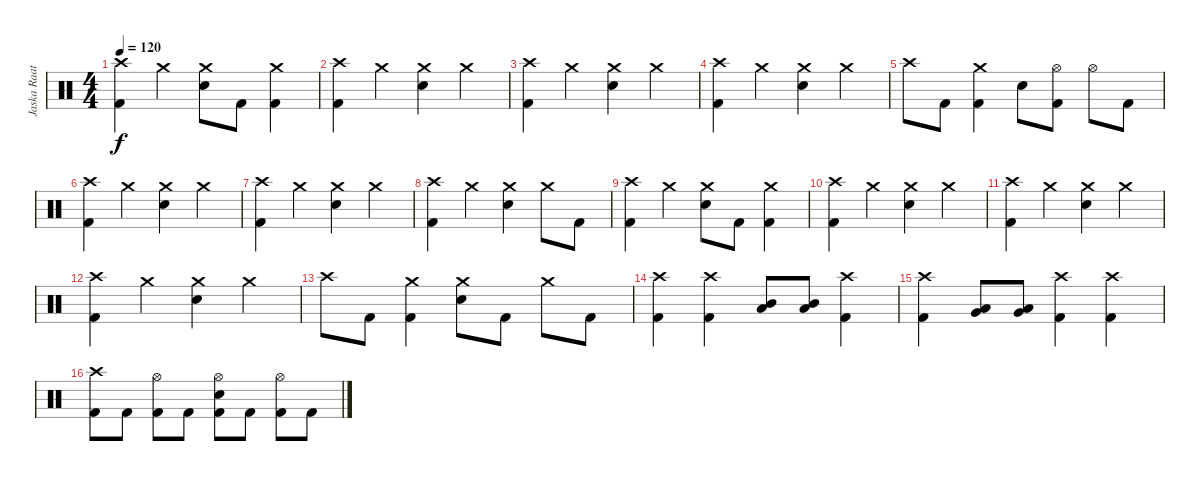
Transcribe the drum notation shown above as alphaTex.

\track ("Jaska Raatikainen" "Jaska Raat") {instrument percussion}
\staff {score}
\articulation defaults
\ts (4 4)
\tempo 120
\clef neutral
\ks c
("Crash high (hit)" "Kick (hit) 2").4{dy f} "Crash medium (hit)".4 ("Crash medium (hit)" "Snare (hit) 2").8 "Kick (hit) 2".8 ("Crash medium (hit)" "Kick (hit) 2").4 |
("Crash high (hit)" "Kick (hit) 2").4 "Crash medium (hit)".4 ("Crash medium (hit)" "Snare (hit) 2").4 "Crash medium (hit)".4 |
("Crash high (hit)" "Kick (hit) 2").4 "Crash medium (hit)".4 ("Crash medium (hit)" "Snare (hit) 2").4 "Crash medium (hit)".4 |
("Crash high (hit)" "Kick (hit) 2").4 "Crash medium (hit)".4 ("Crash medium (hit)" "Snare (hit) 2").4 "Crash medium (hit)".4 |
"Crash high (hit)".8 "Kick (hit) 2".8 ("Crash medium (hit)" "Kick (hit) 2").4 "Snare (hit) 2".8 ("Hi-Hat (open)" "Kick (hit) 2").8 "Hi-Hat (open)".8 "Kick (hit) 2".8 |
("Crash high (hit)" "Kick (hit) 2").4 "Crash medium (hit)".4 ("Crash medium (hit)" "Snare (hit) 2").4 "Crash medium (hit)".4 |
("Crash high (hit)" "Kick (hit) 2").4 "Crash medium (hit)".4 ("Crash medium (hit)" "Snare (hit) 2").4 "Crash medium (hit)".4 |
("Crash high (hit)" "Kick (hit) 2").4 "Crash medium (hit)".4 ("Crash medium (hit)" "Snare (hit) 2").4 "Crash medium (hit)".8 "Kick (hit) 2".8 |
("Crash high (hit)" "Kick (hit) 2").4 "Crash medium (hit)".4 ("Crash medium (hit)" "Snare (hit) 2").8 "Kick (hit) 2".8 ("Crash medium (hit)" "Kick (hit) 2").4 |
("Crash high (hit)" "Kick (hit) 2").4 "Crash medium (hit)".4 ("Crash medium (hit)" "Snare (hit) 2").4 "Crash medium (hit)".4 |
("Crash high (hit)" "Kick (hit) 2").4 "Crash medium (hit)".4 ("Crash medium (hit)" "Snare (hit) 2").4 "Crash medium (hit)".4 |
("Crash high (hit)" "Kick (hit) 2").4 "Crash medium (hit)".4 ("Crash medium (hit)" "Snare (hit) 2").4 "Crash medium (hit)".4 |
"Crash high (hit)".8 "Kick (hit) 2".8 ("Crash medium (hit)" "Kick (hit) 2").4 ("Crash medium (hit)" "Snare (hit) 2").8 "Kick (hit) 2".8 "Crash medium (hit)".8 "Kick (hit) 2".8 |
("Crash high (hit)" "Kick (hit) 2").4 ("Crash high (hit)" "Kick (hit) 2").4 ("Mid Tom (hit)" "Low Tom (hit)").8 ("Mid Tom (hit)" "Low Tom (hit)").8 ("Crash high (hit)" "Kick (hit) 2").4 |
("Crash high (hit)" "Kick (hit) 2").4 ("Low Tom (hit)" "Very Low Tom (hit)").8 ("Low Tom (hit)" "Very Low Tom (hit)").8 ("Crash high (hit)" "Kick (hit) 2").4 ("Crash high (hit)" "Kick (hit) 2").4 |
("Crash high (hit)" "Kick (hit) 2").8 "Kick (hit) 2".8 ("Hi-Hat (open)" "Kick (hit) 2").8 "Kick (hit) 2".8 ("Hi-Hat (open)" "Snare (hit) 2" "Kick (hit) 2").8 "Kick (hit) 2".8 ("Hi-Hat (open)" "Kick (hit) 2").8 "Kick (hit) 2".8
